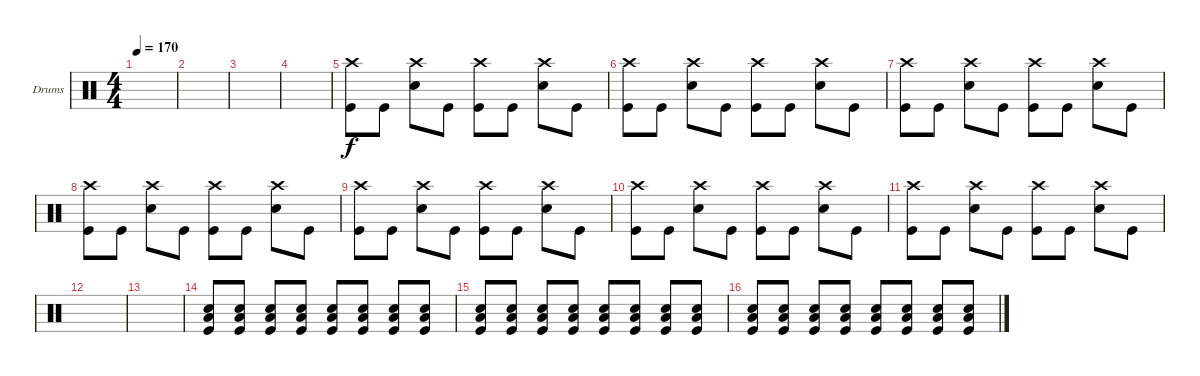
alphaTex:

\defaultSystemsLayout 4
\bracketExtendMode groupsimilarinstruments
\firstSystemTrackNameOrientation horizontal
\otherSystemsTrackNameOrientation horizontal
\track ("Drumkit" "Drums") {instrument percussion}
\staff {score}
\articulation defaults
\ts (4 4)
\tempo 170
\clef neutral
\ks c
|
|
|
|
("Kick (hit)" "Crash high (hit)").8 "Kick (hit)".8 ("Snare (hit) 2" "Crash high (hit)").8 "Kick (hit)".8 ("Kick (hit)" "Crash high (hit)").8 "Kick (hit)".8 ("Snare (hit) 2" "Crash high (hit)").8 "Kick (hit)".8 |
("Kick (hit)" "Crash high (hit)").8 "Kick (hit)".8 ("Snare (hit) 2" "Crash high (hit)").8 "Kick (hit)".8 ("Kick (hit)" "Crash high (hit)").8 "Kick (hit)".8 ("Snare (hit) 2" "Crash high (hit)").8 "Kick (hit)".8 |
("Kick (hit)" "Crash high (hit)").8 "Kick (hit)".8 ("Snare (hit) 2" "Crash high (hit)").8 "Kick (hit)".8 ("Kick (hit)" "Crash high (hit)").8 "Kick (hit)".8 ("Snare (hit) 2" "Crash high (hit)").8 "Kick (hit)".8 |
("Kick (hit)" "Crash high (hit)").8 "Kick (hit)".8 ("Snare (hit) 2" "Crash high (hit)").8 "Kick (hit)".8 ("Kick (hit)" "Crash high (hit)").8 "Kick (hit)".8 ("Snare (hit) 2" "Crash high (hit)").8 "Kick (hit)".8 |
("Kick (hit)" "Crash high (hit)").8 "Kick (hit)".8 ("Snare (hit) 2" "Crash high (hit)").8 "Kick (hit)".8 ("Kick (hit)" "Crash high (hit)").8 "Kick (hit)".8 ("Snare (hit) 2" "Crash high (hit)").8 "Kick (hit)".8 |
("Kick (hit)" "Crash high (hit)").8 "Kick (hit)".8 ("Snare (hit) 2" "Crash high (hit)").8 "Kick (hit)".8 ("Kick (hit)" "Crash high (hit)").8 "Kick (hit)".8 ("Snare (hit) 2" "Crash high (hit)").8 "Kick (hit)".8 |
("Kick (hit)" "Crash high (hit)").8 "Kick (hit)".8 ("Snare (hit) 2" "Crash high (hit)").8 "Kick (hit)".8 ("Kick (hit)" "Crash high (hit)").8 "Kick (hit)".8 ("Snare (hit) 2" "Crash high (hit)").8 "Kick (hit)".8 |
|
|
("Snare (hit) 2" "Kick (hit)" "Low Tom (hit)").8 ("Snare (hit) 2" "Kick (hit)" "Low Tom (hit)").8 ("Snare (hit) 2" "Kick (hit)" "Low Tom (hit)").8 ("Snare (hit) 2" "Kick (hit)" "Low Tom (hit)").8 ("Snare (hit) 2" "Kick (hit)" "Low Tom (hit)").8 ("Snare (hit) 2" "Kick (hit)" "Low Tom (hit)").8 ("Snare (hit) 2" "Kick (hit)" "Low Tom (hit)").8 ("Snare (hit) 2" "Kick (hit)" "Low Tom (hit)").8 |
("Snare (hit) 2" "Kick (hit)" "Low Tom (hit)").8 ("Snare (hit) 2" "Kick (hit)" "Low Tom (hit)").8 ("Snare (hit) 2" "Kick (hit)" "Low Tom (hit)").8 ("Snare (hit) 2" "Kick (hit)" "Low Tom (hit)").8 ("Snare (hit) 2" "Kick (hit)" "Low Tom (hit)").8 ("Snare (hit) 2" "Kick (hit)" "Low Tom (hit)").8 ("Snare (hit) 2" "Kick (hit)" "Low Tom (hit)").8 ("Snare (hit) 2" "Kick (hit)" "Low Tom (hit)").8 |
("Snare (hit) 2" "Kick (hit)" "Low Tom (hit)").8 ("Snare (hit) 2" "Kick (hit)" "Low Tom (hit)").8 ("Snare (hit) 2" "Kick (hit)" "Low Tom (hit)").8 ("Snare (hit) 2" "Kick (hit)" "Low Tom (hit)").8 ("Snare (hit) 2" "Kick (hit)" "Low Tom (hit)").8 ("Snare (hit) 2" "Kick (hit)" "Low Tom (hit)").8 ("Snare (hit) 2" "Kick (hit)" "Low Tom (hit)").8 ("Snare (hit) 2" "Kick (hit)" "Low Tom (hit)").8
